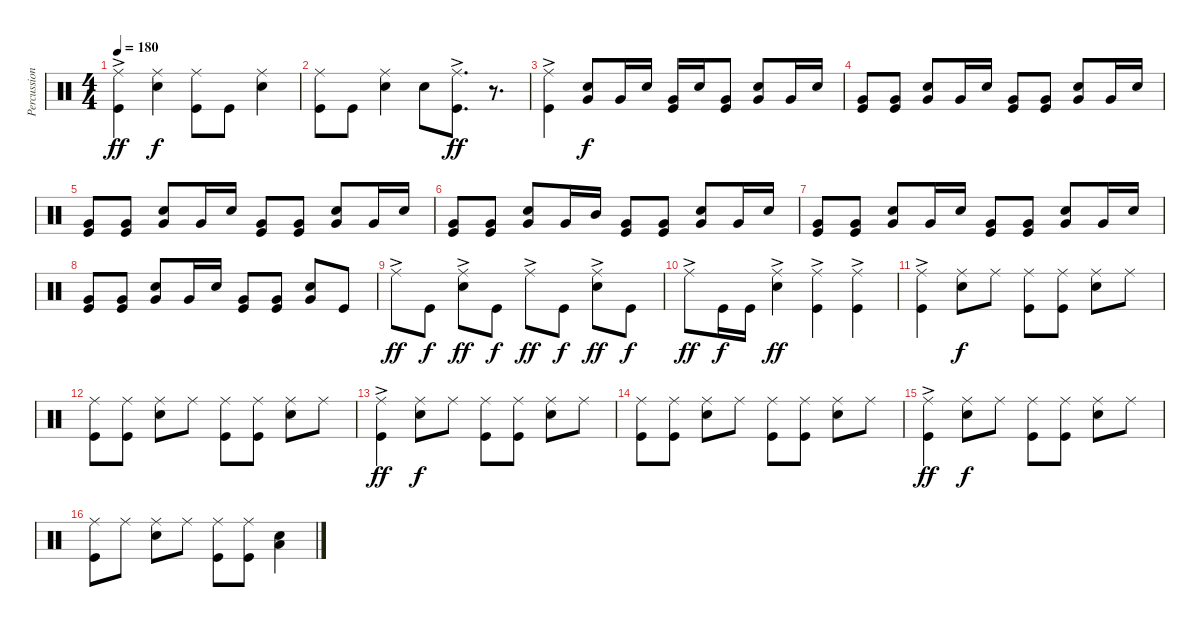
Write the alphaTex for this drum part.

\track ("Percussion" "Percussion") {instrument percussion}
\staff {score}
\articulation defaults
\ts (4 4)
\tempo 180
\clef neutral
\ks c
("Ride (middle)"{ac} "Kick (hit)").4{dy ff} ("Ride (middle)" "Snare (hit) 2").4{dy f} ("Ride (middle)" "Kick (hit)").8 "Kick (hit)".8 ("Ride (middle)" "Snare (hit) 2").4 |
("Ride (middle)" "Kick (hit)").8 "Kick (hit)".8 ("Ride (middle)" "Snare (hit) 2").4 "Snare (hit) 2".8 ("Ride (middle)" "Kick (hit)"{ac}).8{d dy ff} r.8{d} |
("Ride (middle)"{ac} "Kick (hit)").4 ("Snare (hit) 2" "Very Low Tom (hit)").8{dy f} "Very Low Tom (hit)".16 "Snare (hit) 2".16 ("Very Low Tom (hit)" "Kick (hit)").16 "Snare (hit) 2".16 ("Very Low Tom (hit)" "Kick (hit)").8 ("Snare (hit) 2" "Very Low Tom (hit)").8 "Very Low Tom (hit)".16 "Snare (hit) 2".16 |
("Very Low Tom (hit)" "Kick (hit)").8 ("Very Low Tom (hit)" "Kick (hit)").8 ("Snare (hit) 2" "Very Low Tom (hit)").8 "Very Low Tom (hit)".16 "Snare (hit) 2".16 ("Very Low Tom (hit)" "Kick (hit)").8 ("Very Low Tom (hit)" "Kick (hit)").8 ("Snare (hit) 2" "Very Low Tom (hit)").8 "Very Low Tom (hit)".16 "Snare (hit) 2".16 |
("Very Low Tom (hit)" "Kick (hit)").8 ("Very Low Tom (hit)" "Kick (hit)").8 ("Snare (hit) 2" "Very Low Tom (hit)").8 "Very Low Tom (hit)".16 "Snare (hit) 2".16 ("Very Low Tom (hit)" "Kick (hit)").8 ("Very Low Tom (hit)" "Kick (hit)").8 ("Snare (hit) 2" "Very Low Tom (hit)").8 "Very Low Tom (hit)".16 "Snare (hit) 2".16 |
("Very Low Tom (hit)" "Kick (hit)").8 ("Very Low Tom (hit)" "Kick (hit)").8 ("Snare (hit) 2" "Very Low Tom (hit)").8 "Very Low Tom (hit)".16 "Mid Tom (hit)".16 ("Very Low Tom (hit)" "Kick (hit)").8 ("Very Low Tom (hit)" "Kick (hit)").8 ("Snare (hit) 2" "Very Low Tom (hit)").8 "Very Low Tom (hit)".16 "Snare (hit) 2".16 |
("Very Low Tom (hit)" "Kick (hit)").8 ("Very Low Tom (hit)" "Kick (hit)").8 ("Snare (hit) 2" "Very Low Tom (hit)").8 "Very Low Tom (hit)".16 "Snare (hit) 2".16 ("Very Low Tom (hit)" "Kick (hit)").8 ("Very Low Tom (hit)" "Kick (hit)").8 ("Snare (hit) 2" "Very Low Tom (hit)").8 "Very Low Tom (hit)".16 "Snare (hit) 2".16 |
("Very Low Tom (hit)" "Kick (hit)").8 ("Very Low Tom (hit)" "Kick (hit)").8 ("Snare (hit) 2" "Very Low Tom (hit)").8 "Very Low Tom (hit)".16 "Snare (hit) 2".16 ("Very Low Tom (hit)" "Kick (hit)").8 ("Very Low Tom (hit)" "Kick (hit)").8 ("Snare (hit) 2" "Very Low Tom (hit)").8 "Kick (hit)".8 |
"Ride (middle)"{ac}.8{dy ff} "Kick (hit)".8{dy f} ("Ride (middle)"{ac} "Snare (hit) 2").8{dy ff} "Kick (hit)".8{dy f} "Ride (middle)"{ac}.8{dy ff} "Kick (hit)".8{dy f} ("Ride (middle)"{ac} "Snare (hit) 2").8{dy ff} "Kick (hit)".8{dy f} |
"Ride (middle)"{ac}.8{dy ff} "Kick (hit)".16{dy f} "Kick (hit)".16 ("Ride (middle)"{ac} "Snare (hit) 2").4{dy ff} ("Ride (middle)"{ac} "Kick (hit)").4 ("Ride (middle)"{ac} "Kick (hit)").4 |
("Ride (middle)"{ac} "Kick (hit)").4 ("Ride (middle)" "Snare (hit) 2").8{dy f} "Ride (middle)".8 ("Ride (middle)" "Kick (hit)").8 ("Ride (middle)" "Kick (hit)").8 ("Ride (middle)" "Snare (hit) 2").8 "Ride (middle)".8 |
("Ride (middle)" "Kick (hit)").8 ("Ride (middle)" "Kick (hit)").8 ("Ride (middle)" "Snare (hit) 2").8 "Ride (middle)".8 ("Ride (middle)" "Kick (hit)").8 ("Ride (middle)" "Kick (hit)").8 ("Ride (middle)" "Snare (hit) 2").8 "Ride (middle)".8 |
("Ride (middle)"{ac} "Kick (hit)").4{dy ff} ("Ride (middle)" "Snare (hit) 2").8{dy f} "Ride (middle)".8 ("Ride (middle)" "Kick (hit)").8 ("Ride (middle)" "Kick (hit)").8 ("Ride (middle)" "Snare (hit) 2").8 "Ride (middle)".8 |
("Ride (middle)" "Kick (hit)").8 ("Ride (middle)" "Kick (hit)").8 ("Ride (middle)" "Snare (hit) 2").8 "Ride (middle)".8 ("Ride (middle)" "Kick (hit)").8 ("Ride (middle)" "Kick (hit)").8 ("Ride (middle)" "Snare (hit) 2").8 "Ride (middle)".8 |
("Ride (middle)"{ac} "Kick (hit)").4{dy ff} ("Ride (middle)" "Snare (hit) 2").8{dy f} "Ride (middle)".8 ("Ride (middle)" "Kick (hit)").8 ("Ride (middle)" "Kick (hit)").8 ("Ride (middle)" "Snare (hit) 2").8 "Ride (middle)".8 |
("Ride (middle)" "Kick (hit)").8 "Ride (middle)".8 ("Ride (middle)" "Snare (hit) 2").8 "Ride (middle)".8 ("Ride (middle)" "Kick (hit)").8 ("Ride (middle)" "Kick (hit)").8 ("Snare (hit) 2" "Low Tom (hit)").4
